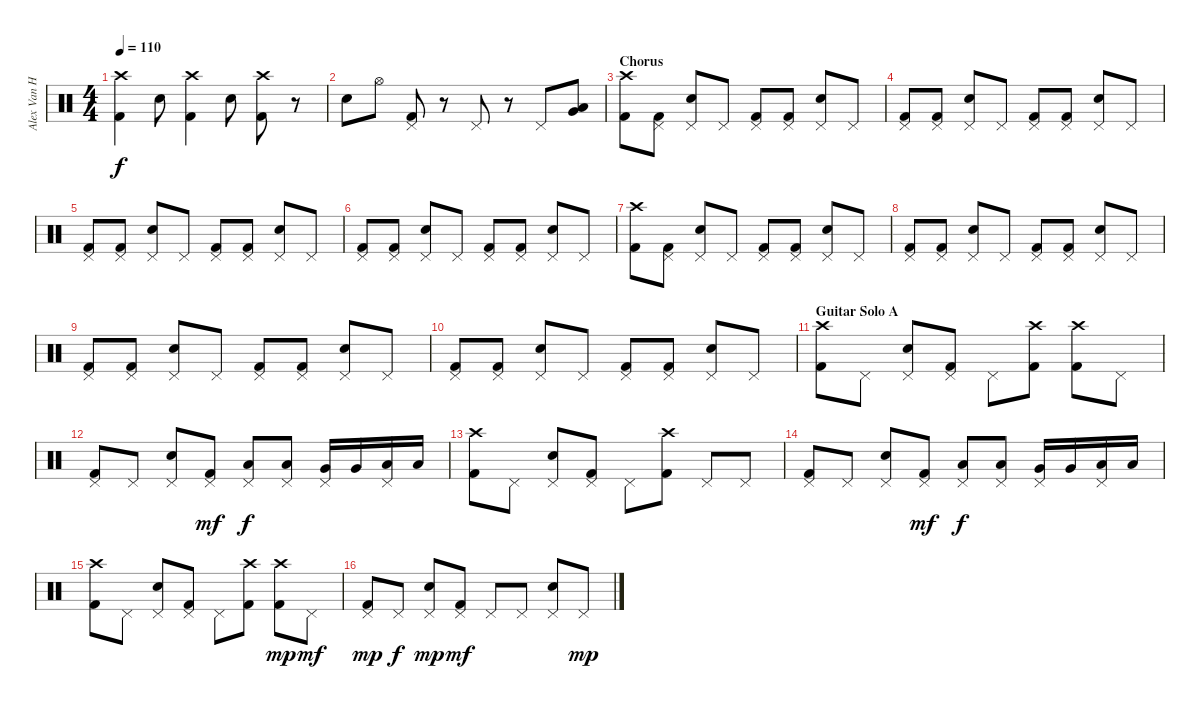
\track ("Alex Van Halen" "Alex Van H") {instrument percussion}
\staff {score}
\articulation defaults
\ts (4 4)
\tempo 110
\clef neutral
\ks c
("Crash high (hit)" "Kick (hit) 2").4{dy f} "Snare (hit) 2".8 ("Crash high (hit)" "Kick (hit) 2").4 "Snare (hit) 2".8 ("Crash high (hit)" "Kick (hit) 2").8 r.8 |
"Snare (hit) 2".8 "Hi-Hat (open)".8 ("Pedal Hi-Hat (hit)" "Kick (hit) 2").8 r.8 "Pedal Hi-Hat (hit)".8 r.8 "Pedal Hi-Hat (hit)".8 ("Very Low Tom (hit)" "Low Floor Tom (hit)").8 |
\section ("" "Chorus")
("Crash high (hit)" "Kick (hit) 2").8 ("Pedal Hi-Hat (hit)" "Kick (hit) 2").8 ("Pedal Hi-Hat (hit)" "Snare (hit) 2").8 "Pedal Hi-Hat (hit)".8 ("Pedal Hi-Hat (hit)" "Kick (hit) 2").8 ("Pedal Hi-Hat (hit)" "Kick (hit) 2").8 ("Pedal Hi-Hat (hit)" "Snare (hit) 2").8 "Pedal Hi-Hat (hit)".8 |
("Pedal Hi-Hat (hit)" "Kick (hit) 2").8 ("Pedal Hi-Hat (hit)" "Kick (hit) 2").8 ("Pedal Hi-Hat (hit)" "Snare (hit) 2").8 "Pedal Hi-Hat (hit)".8 ("Pedal Hi-Hat (hit)" "Kick (hit) 2").8 ("Pedal Hi-Hat (hit)" "Kick (hit) 2").8 ("Pedal Hi-Hat (hit)" "Snare (hit) 2").8 "Pedal Hi-Hat (hit)".8 |
("Pedal Hi-Hat (hit)" "Kick (hit) 2").8 ("Pedal Hi-Hat (hit)" "Kick (hit) 2").8 ("Pedal Hi-Hat (hit)" "Snare (hit) 2").8 "Pedal Hi-Hat (hit)".8 ("Pedal Hi-Hat (hit)" "Kick (hit) 2").8 ("Pedal Hi-Hat (hit)" "Kick (hit) 2").8 ("Pedal Hi-Hat (hit)" "Snare (hit) 2").8 "Pedal Hi-Hat (hit)".8 |
("Pedal Hi-Hat (hit)" "Kick (hit) 2").8 ("Pedal Hi-Hat (hit)" "Kick (hit) 2").8 ("Pedal Hi-Hat (hit)" "Snare (hit) 2").8 "Pedal Hi-Hat (hit)".8 ("Pedal Hi-Hat (hit)" "Kick (hit) 2").8 ("Pedal Hi-Hat (hit)" "Kick (hit) 2").8 ("Pedal Hi-Hat (hit)" "Snare (hit) 2").8 "Pedal Hi-Hat (hit)".8 |
("Crash high (hit)" "Kick (hit) 2").8 ("Pedal Hi-Hat (hit)" "Kick (hit) 2").8 ("Pedal Hi-Hat (hit)" "Snare (hit) 2").8 "Pedal Hi-Hat (hit)".8 ("Pedal Hi-Hat (hit)" "Kick (hit) 2").8 ("Pedal Hi-Hat (hit)" "Kick (hit) 2").8 ("Pedal Hi-Hat (hit)" "Snare (hit) 2").8 "Pedal Hi-Hat (hit)".8 |
("Pedal Hi-Hat (hit)" "Kick (hit) 2").8 ("Pedal Hi-Hat (hit)" "Kick (hit) 2").8 ("Pedal Hi-Hat (hit)" "Snare (hit) 2").8 "Pedal Hi-Hat (hit)".8 ("Pedal Hi-Hat (hit)" "Kick (hit) 2").8 ("Pedal Hi-Hat (hit)" "Kick (hit) 2").8 ("Pedal Hi-Hat (hit)" "Snare (hit) 2").8 "Pedal Hi-Hat (hit)".8 |
("Pedal Hi-Hat (hit)" "Kick (hit) 2").8 ("Pedal Hi-Hat (hit)" "Kick (hit) 2").8 ("Pedal Hi-Hat (hit)" "Snare (hit) 2").8 "Pedal Hi-Hat (hit)".8 ("Pedal Hi-Hat (hit)" "Kick (hit) 2").8 ("Pedal Hi-Hat (hit)" "Kick (hit) 2").8 ("Pedal Hi-Hat (hit)" "Snare (hit) 2").8 "Pedal Hi-Hat (hit)".8 |
("Pedal Hi-Hat (hit)" "Kick (hit) 2").8 ("Pedal Hi-Hat (hit)" "Kick (hit) 2").8 ("Pedal Hi-Hat (hit)" "Snare (hit) 2").8 "Pedal Hi-Hat (hit)".8 ("Pedal Hi-Hat (hit)" "Kick (hit) 2").8 ("Pedal Hi-Hat (hit)" "Kick (hit) 2").8 ("Pedal Hi-Hat (hit)" "Snare (hit) 2").8 "Pedal Hi-Hat (hit)".8 |
\section ("" "Guitar Solo A")
("Crash high (hit)" "Kick (hit) 2").8 "Pedal Hi-Hat (hit)".8 ("Pedal Hi-Hat (hit)" "Snare (hit) 2").8 ("Pedal Hi-Hat (hit)" "Kick (hit) 2").8 "Pedal Hi-Hat (hit)".8 ("Crash high (hit)" "Kick (hit) 2").8 ("Crash high (hit)" "Kick (hit) 2").8 "Pedal Hi-Hat (hit)".8 |
("Pedal Hi-Hat (hit)" "Kick (hit) 2").8 "Pedal Hi-Hat (hit)".8 ("Pedal Hi-Hat (hit)" "Snare (hit) 2").8 ("Pedal Hi-Hat (hit)" "Kick (hit) 2").8{dy mf} ("Pedal Hi-Hat (hit)" "Low Tom (hit)").8{dy f} ("Pedal Hi-Hat (hit)" "Low Tom (hit)").8 ("Pedal Hi-Hat (hit)" "Very Low Tom (hit)").16 "Very Low Tom (hit)".16 ("Pedal Hi-Hat (hit)" "Low Floor Tom (hit)").16 "Low Floor Tom (hit)".16 |
("Crash high (hit)" "Kick (hit) 2").8 "Pedal Hi-Hat (hit)".8 ("Pedal Hi-Hat (hit)" "Snare (hit) 2").8 ("Pedal Hi-Hat (hit)" "Kick (hit) 2").8 "Pedal Hi-Hat (hit)".8 ("Crash high (hit)" "Kick (hit) 2").8 "Pedal Hi-Hat (hit)".8 "Pedal Hi-Hat (hit)".8 |
("Pedal Hi-Hat (hit)" "Kick (hit) 2").8 "Pedal Hi-Hat (hit)".8 ("Pedal Hi-Hat (hit)" "Snare (hit) 2").8 ("Pedal Hi-Hat (hit)" "Kick (hit) 2").8{dy mf} ("Pedal Hi-Hat (hit)" "Low Tom (hit)").8{dy f} ("Pedal Hi-Hat (hit)" "Low Tom (hit)").8 ("Pedal Hi-Hat (hit)" "Very Low Tom (hit)").16 "Very Low Tom (hit)".16 ("Pedal Hi-Hat (hit)" "Low Floor Tom (hit)").16 "Low Floor Tom (hit)".16 |
("Crash high (hit)" "Kick (hit) 2").8 "Pedal Hi-Hat (hit)".8 ("Pedal Hi-Hat (hit)" "Snare (hit) 2").8 ("Pedal Hi-Hat (hit)" "Kick (hit) 2").8 "Pedal Hi-Hat (hit)".8 ("Crash high (hit)" "Kick (hit) 2").8 ("Crash high (hit)" "Kick (hit) 2").8{dy mp} "Pedal Hi-Hat (hit)".8{dy mf} |
("Pedal Hi-Hat (hit)" "Kick (hit) 2").8{dy mp} "Pedal Hi-Hat (hit)".8{dy f} ("Pedal Hi-Hat (hit)" "Snare (hit) 2").8{dy mp} ("Pedal Hi-Hat (hit)" "Kick (hit) 2").8{dy mf} "Pedal Hi-Hat (hit)".8 "Pedal Hi-Hat (hit)".8 ("Pedal Hi-Hat (hit)" "Snare (hit) 2").8 "Pedal Hi-Hat (hit)".8{dy mp}
